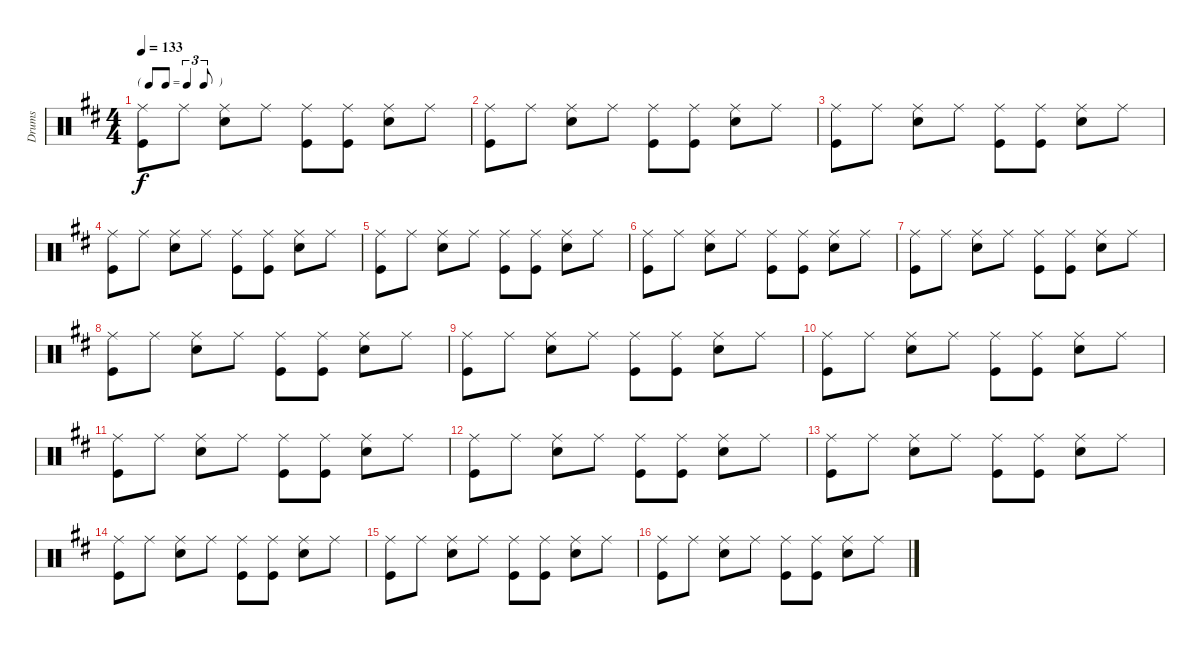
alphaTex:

\track ("Drums" "Drums") {instrument percussion}
\staff {score}
\articulation defaults
\ts (4 4)
\tf triplet8th
\tempo 133
\clef neutral
\ks d
("Ride (middle)" "Kick (hit)").8{dy f} "Ride (middle)".8 ("Ride (middle)" "Snare (hit) 2").8 "Ride (middle)".8 ("Ride (middle)" "Kick (hit)").8 ("Ride (middle)" "Kick (hit)").8 ("Ride (middle)" "Snare (hit) 2").8 "Ride (middle)".8 |
("Ride (middle)" "Kick (hit)").8 "Ride (middle)".8 ("Ride (middle)" "Snare (hit) 2").8 "Ride (middle)".8 ("Ride (middle)" "Kick (hit)").8 ("Ride (middle)" "Kick (hit)").8 ("Ride (middle)" "Snare (hit) 2").8 "Ride (middle)".8 |
("Ride (middle)" "Kick (hit)").8 "Ride (middle)".8 ("Ride (middle)" "Snare (hit) 2").8 "Ride (middle)".8 ("Ride (middle)" "Kick (hit)").8 ("Ride (middle)" "Kick (hit)").8 ("Ride (middle)" "Snare (hit) 2").8 "Ride (middle)".8 |
("Ride (middle)" "Kick (hit)").8 "Ride (middle)".8 ("Ride (middle)" "Snare (hit) 2").8 "Ride (middle)".8 ("Ride (middle)" "Kick (hit)").8 ("Ride (middle)" "Kick (hit)").8 ("Ride (middle)" "Snare (hit) 2").8 "Ride (middle)".8 |
("Ride (middle)" "Kick (hit)").8 "Ride (middle)".8 ("Ride (middle)" "Snare (hit) 2").8 "Ride (middle)".8 ("Ride (middle)" "Kick (hit)").8 ("Ride (middle)" "Kick (hit)").8 ("Ride (middle)" "Snare (hit) 2").8 "Ride (middle)".8 |
("Ride (middle)" "Kick (hit)").8 "Ride (middle)".8 ("Ride (middle)" "Snare (hit) 2").8 "Ride (middle)".8 ("Ride (middle)" "Kick (hit)").8 ("Ride (middle)" "Kick (hit)").8 ("Ride (middle)" "Snare (hit) 2").8 "Ride (middle)".8 |
("Ride (middle)" "Kick (hit)").8 "Ride (middle)".8 ("Ride (middle)" "Snare (hit) 2").8 "Ride (middle)".8 ("Ride (middle)" "Kick (hit)").8 ("Ride (middle)" "Kick (hit)").8 ("Ride (middle)" "Snare (hit) 2").8 "Ride (middle)".8 |
("Ride (middle)" "Kick (hit)").8{volume 13} "Ride (middle)".8 ("Ride (middle)" "Snare (hit) 2").8 "Ride (middle)".8 ("Ride (middle)" "Kick (hit)").8 ("Ride (middle)" "Kick (hit)").8 ("Ride (middle)" "Snare (hit) 2").8 "Ride (middle)".8 |
("Ride (middle)" "Kick (hit)").8 "Ride (middle)".8 ("Ride (middle)" "Snare (hit) 2").8 "Ride (middle)".8 ("Ride (middle)" "Kick (hit)").8 ("Ride (middle)" "Kick (hit)").8 ("Ride (middle)" "Snare (hit) 2").8 "Ride (middle)".8 |
("Ride (middle)" "Kick (hit)").8{volume 10} "Ride (middle)".8 ("Ride (middle)" "Snare (hit) 2").8 "Ride (middle)".8 ("Ride (middle)" "Kick (hit)").8 ("Ride (middle)" "Kick (hit)").8 ("Ride (middle)" "Snare (hit) 2").8 "Ride (middle)".8 |
("Ride (middle)" "Kick (hit)").8 "Ride (middle)".8 ("Ride (middle)" "Snare (hit) 2").8 "Ride (middle)".8 ("Ride (middle)" "Kick (hit)").8 ("Ride (middle)" "Kick (hit)").8 ("Ride (middle)" "Snare (hit) 2").8 "Ride (middle)".8 |
("Ride (middle)" "Kick (hit)").8{volume 6} "Ride (middle)".8 ("Ride (middle)" "Snare (hit) 2").8 "Ride (middle)".8 ("Ride (middle)" "Kick (hit)").8 ("Ride (middle)" "Kick (hit)").8 ("Ride (middle)" "Snare (hit) 2").8 "Ride (middle)".8 |
("Ride (middle)" "Kick (hit)").8 "Ride (middle)".8 ("Ride (middle)" "Snare (hit) 2").8 "Ride (middle)".8 ("Ride (middle)" "Kick (hit)").8 ("Ride (middle)" "Kick (hit)").8 ("Ride (middle)" "Snare (hit) 2").8 "Ride (middle)".8 |
("Ride (middle)" "Kick (hit)").8{volume 5} "Ride (middle)".8 ("Ride (middle)" "Snare (hit) 2").8 "Ride (middle)".8 ("Ride (middle)" "Kick (hit)").8 ("Ride (middle)" "Kick (hit)").8 ("Ride (middle)" "Snare (hit) 2").8 "Ride (middle)".8 |
("Ride (middle)" "Kick (hit)").8 "Ride (middle)".8 ("Ride (middle)" "Snare (hit) 2").8 "Ride (middle)".8 ("Ride (middle)" "Kick (hit)").8 ("Ride (middle)" "Kick (hit)").8 ("Ride (middle)" "Snare (hit) 2").8 "Ride (middle)".8 |
("Ride (middle)" "Kick (hit)").8{volume 3} "Ride (middle)".8 ("Ride (middle)" "Snare (hit) 2").8 "Ride (middle)".8 ("Ride (middle)" "Kick (hit)").8 ("Ride (middle)" "Kick (hit)").8 ("Ride (middle)" "Snare (hit) 2").8 "Ride (middle)".8
